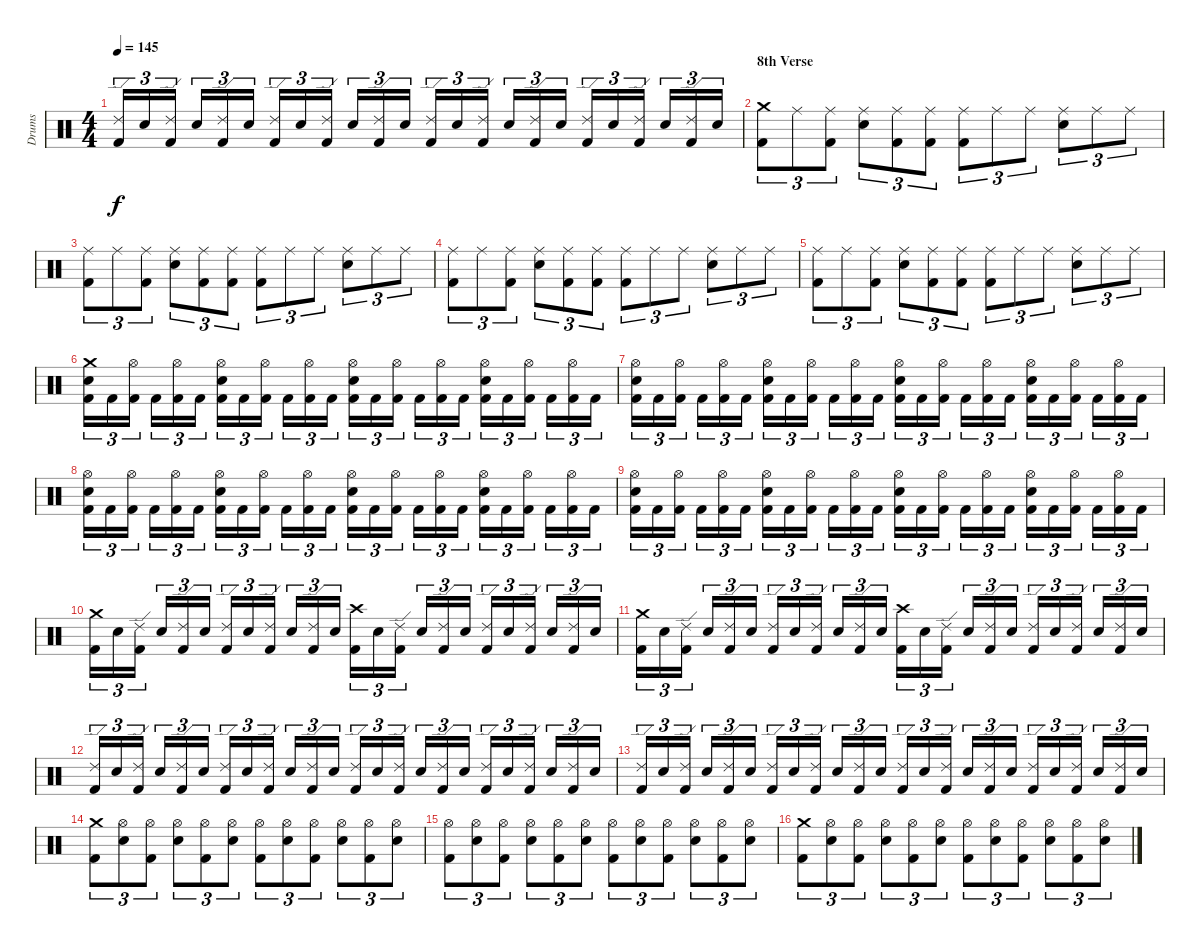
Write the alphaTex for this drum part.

\track ("Drums" "Drums") {instrument percussion}
\staff {score}
\articulation defaults
\ts (4 4)
\tempo 145
\clef neutral
\ks c
("Kick (hit) 2" "Ride (edge) 2").16{tu (3 2) dy f} "Snare (hit) 2".16{tu (3 2)} ("Kick (hit) 2" "Ride (edge) 2").16{tu (3 2)} "Snare (hit) 2".16{tu (3 2)} ("Kick (hit) 2" "Ride (edge) 2").16{tu (3 2)} "Snare (hit) 2".16{tu (3 2)} ("Kick (hit) 2" "Ride (edge) 2").16{tu (3 2)} "Snare (hit) 2".16{tu (3 2)} ("Kick (hit) 2" "Ride (edge) 2").16{tu (3 2)} "Snare (hit) 2".16{tu (3 2)} ("Kick (hit) 2" "Ride (edge) 2").16{tu (3 2)} "Snare (hit) 2".16{tu (3 2)} ("Kick (hit) 2" "Ride (edge) 2").16{tu (3 2)} "Snare (hit) 2".16{tu (3 2)} ("Kick (hit) 2" "Ride (edge) 2").16{tu (3 2)} "Snare (hit) 2".16{tu (3 2)} ("Kick (hit) 2" "Ride (edge) 2").16{tu (3 2)} "Snare (hit) 2".16{tu (3 2)} ("Kick (hit) 2" "Ride (edge) 2").16{tu (3 2)} "Snare (hit) 2".16{tu (3 2)} ("Kick (hit) 2" "Ride (edge) 2").16{tu (3 2)} "Snare (hit) 2".16{tu (3 2)} ("Kick (hit) 2" "Ride (edge) 2").16{tu (3 2)} "Snare (hit) 2".16{tu (3 2)} |
\section ("" "8th Verse")
("Kick (hit) 2" "Crash medium (hit)").8{tu (3 2)} "Ride (middle)".8{tu (3 2)} ("Kick (hit) 2" "Ride (middle)").8{tu (3 2)} ("Electric Snare (hit)" "Ride (middle)").8{tu (3 2)} ("Kick (hit) 2" "Ride (middle)").8{tu (3 2)} ("Kick (hit) 2" "Ride (middle)").8{tu (3 2)} ("Kick (hit) 2" "Ride (middle)").8{tu (3 2)} "Ride (middle)".8{tu (3 2)} "Ride (middle)".8{tu (3 2)} ("Electric Snare (hit)" "Ride (middle)").8{tu (3 2)} "Ride (middle)".8{tu (3 2)} "Ride (middle)".8{tu (3 2)} |
("Kick (hit) 2" "Ride (middle)").8{tu (3 2)} "Ride (middle)".8{tu (3 2)} ("Kick (hit) 2" "Ride (middle)").8{tu (3 2)} ("Electric Snare (hit)" "Ride (middle)").8{tu (3 2)} ("Kick (hit) 2" "Ride (middle)").8{tu (3 2)} ("Kick (hit) 2" "Ride (middle)").8{tu (3 2)} ("Kick (hit) 2" "Ride (middle)").8{tu (3 2)} "Ride (middle)".8{tu (3 2)} "Ride (middle)".8{tu (3 2)} ("Electric Snare (hit)" "Ride (middle)").8{tu (3 2)} "Ride (middle)".8{tu (3 2)} "Ride (middle)".8{tu (3 2)} |
("Kick (hit) 2" "Ride (middle)").8{tu (3 2)} "Ride (middle)".8{tu (3 2)} ("Kick (hit) 2" "Ride (middle)").8{tu (3 2)} ("Electric Snare (hit)" "Ride (middle)").8{tu (3 2)} ("Kick (hit) 2" "Ride (middle)").8{tu (3 2)} ("Kick (hit) 2" "Ride (middle)").8{tu (3 2)} ("Kick (hit) 2" "Ride (middle)").8{tu (3 2)} "Ride (middle)".8{tu (3 2)} "Ride (middle)".8{tu (3 2)} ("Electric Snare (hit)" "Ride (middle)").8{tu (3 2)} "Ride (middle)".8{tu (3 2)} "Ride (middle)".8{tu (3 2)} |
("Kick (hit) 2" "Ride (middle)").8{tu (3 2)} "Ride (middle)".8{tu (3 2)} ("Kick (hit) 2" "Ride (middle)").8{tu (3 2)} ("Electric Snare (hit)" "Ride (middle)").8{tu (3 2)} ("Kick (hit) 2" "Ride (middle)").8{tu (3 2)} ("Kick (hit) 2" "Ride (middle)").8{tu (3 2)} ("Kick (hit) 2" "Ride (middle)").8{tu (3 2)} "Ride (middle)".8{tu (3 2)} "Ride (middle)".8{tu (3 2)} ("Electric Snare (hit)" "Ride (middle)").8{tu (3 2)} "Ride (middle)".8{tu (3 2)} "Ride (middle)".8{tu (3 2)} |
("Kick (hit) 2" "Electric Snare (hit)" "Crash medium (hit)").16{tu (3 2)} "Kick (hit) 2".16{tu (3 2)} ("Kick (hit) 2" "Hi-Hat (open)").16{tu (3 2)} "Kick (hit) 2".16{tu (3 2)} ("Kick (hit) 2" "Hi-Hat (open)").16{tu (3 2)} "Kick (hit) 2".16{tu (3 2)} ("Kick (hit) 2" "Electric Snare (hit)" "Hi-Hat (open)").16{tu (3 2)} "Kick (hit) 2".16{tu (3 2)} ("Kick (hit) 2" "Hi-Hat (open)").16{tu (3 2)} "Kick (hit) 2".16{tu (3 2)} ("Kick (hit) 2" "Hi-Hat (open)").16{tu (3 2)} "Kick (hit) 2".16{tu (3 2)} ("Kick (hit) 2" "Electric Snare (hit)" "Hi-Hat (open)").16{tu (3 2)} "Kick (hit) 2".16{tu (3 2)} ("Kick (hit) 2" "Hi-Hat (open)").16{tu (3 2)} "Kick (hit) 2".16{tu (3 2)} ("Kick (hit) 2" "Hi-Hat (open)").16{tu (3 2)} "Kick (hit) 2".16{tu (3 2)} ("Kick (hit) 2" "Electric Snare (hit)" "Hi-Hat (open)").16{tu (3 2)} "Kick (hit) 2".16{tu (3 2)} ("Kick (hit) 2" "Hi-Hat (open)").16{tu (3 2)} "Kick (hit) 2".16{tu (3 2)} ("Kick (hit) 2" "Hi-Hat (open)").16{tu (3 2)} "Kick (hit) 2".16{tu (3 2)} |
("Kick (hit) 2" "Electric Snare (hit)" "Hi-Hat (open)").16{tu (3 2)} "Kick (hit) 2".16{tu (3 2)} ("Kick (hit) 2" "Hi-Hat (open)").16{tu (3 2)} "Kick (hit) 2".16{tu (3 2)} ("Kick (hit) 2" "Hi-Hat (open)").16{tu (3 2)} "Kick (hit) 2".16{tu (3 2)} ("Kick (hit) 2" "Electric Snare (hit)" "Hi-Hat (open)").16{tu (3 2)} "Kick (hit) 2".16{tu (3 2)} ("Kick (hit) 2" "Hi-Hat (open)").16{tu (3 2)} "Kick (hit) 2".16{tu (3 2)} ("Kick (hit) 2" "Hi-Hat (open)").16{tu (3 2)} "Kick (hit) 2".16{tu (3 2)} ("Kick (hit) 2" "Electric Snare (hit)" "Hi-Hat (open)").16{tu (3 2)} "Kick (hit) 2".16{tu (3 2)} ("Kick (hit) 2" "Hi-Hat (open)").16{tu (3 2)} "Kick (hit) 2".16{tu (3 2)} ("Kick (hit) 2" "Hi-Hat (open)").16{tu (3 2)} "Kick (hit) 2".16{tu (3 2)} ("Kick (hit) 2" "Electric Snare (hit)" "Hi-Hat (open)").16{tu (3 2)} "Kick (hit) 2".16{tu (3 2)} ("Kick (hit) 2" "Hi-Hat (open)").16{tu (3 2)} "Kick (hit) 2".16{tu (3 2)} ("Kick (hit) 2" "Hi-Hat (open)").16{tu (3 2)} "Kick (hit) 2".16{tu (3 2)} |
("Kick (hit) 2" "Electric Snare (hit)" "Hi-Hat (open)").16{tu (3 2)} "Kick (hit) 2".16{tu (3 2)} ("Kick (hit) 2" "Hi-Hat (open)").16{tu (3 2)} "Kick (hit) 2".16{tu (3 2)} ("Kick (hit) 2" "Hi-Hat (open)").16{tu (3 2)} "Kick (hit) 2".16{tu (3 2)} ("Kick (hit) 2" "Electric Snare (hit)" "Hi-Hat (open)").16{tu (3 2)} "Kick (hit) 2".16{tu (3 2)} ("Kick (hit) 2" "Hi-Hat (open)").16{tu (3 2)} "Kick (hit) 2".16{tu (3 2)} ("Kick (hit) 2" "Hi-Hat (open)").16{tu (3 2)} "Kick (hit) 2".16{tu (3 2)} ("Kick (hit) 2" "Electric Snare (hit)" "Hi-Hat (open)").16{tu (3 2)} "Kick (hit) 2".16{tu (3 2)} ("Kick (hit) 2" "Hi-Hat (open)").16{tu (3 2)} "Kick (hit) 2".16{tu (3 2)} ("Kick (hit) 2" "Hi-Hat (open)").16{tu (3 2)} "Kick (hit) 2".16{tu (3 2)} ("Kick (hit) 2" "Electric Snare (hit)" "Hi-Hat (open)").16{tu (3 2)} "Kick (hit) 2".16{tu (3 2)} ("Kick (hit) 2" "Hi-Hat (open)").16{tu (3 2)} "Kick (hit) 2".16{tu (3 2)} ("Kick (hit) 2" "Hi-Hat (open)").16{tu (3 2)} "Kick (hit) 2".16{tu (3 2)} |
("Kick (hit) 2" "Electric Snare (hit)" "Hi-Hat (open)").16{tu (3 2)} "Kick (hit) 2".16{tu (3 2)} ("Kick (hit) 2" "Hi-Hat (open)").16{tu (3 2)} "Kick (hit) 2".16{tu (3 2)} ("Kick (hit) 2" "Hi-Hat (open)").16{tu (3 2)} "Kick (hit) 2".16{tu (3 2)} ("Kick (hit) 2" "Electric Snare (hit)" "Hi-Hat (open)").16{tu (3 2)} "Kick (hit) 2".16{tu (3 2)} ("Kick (hit) 2" "Hi-Hat (open)").16{tu (3 2)} "Kick (hit) 2".16{tu (3 2)} ("Kick (hit) 2" "Hi-Hat (open)").16{tu (3 2)} "Kick (hit) 2".16{tu (3 2)} ("Kick (hit) 2" "Electric Snare (hit)" "Hi-Hat (open)").16{tu (3 2)} "Kick (hit) 2".16{tu (3 2)} ("Kick (hit) 2" "Hi-Hat (open)").16{tu (3 2)} "Kick (hit) 2".16{tu (3 2)} ("Kick (hit) 2" "Hi-Hat (open)").16{tu (3 2)} "Kick (hit) 2".16{tu (3 2)} ("Kick (hit) 2" "Electric Snare (hit)" "Hi-Hat (open)").16{tu (3 2)} "Kick (hit) 2".16{tu (3 2)} ("Kick (hit) 2" "Hi-Hat (open)").16{tu (3 2)} "Kick (hit) 2".16{tu (3 2)} ("Kick (hit) 2" "Hi-Hat (open)").16{tu (3 2)} "Kick (hit) 2".16{tu (3 2)} |
("Kick (hit) 2" "Crash medium (hit)").16{tu (3 2)} "Snare (hit) 2".16{tu (3 2)} ("Kick (hit) 2" "Ride (edge) 2").16{tu (3 2)} "Snare (hit) 2".16{tu (3 2)} ("Kick (hit) 2" "Ride (edge) 2").16{tu (3 2)} "Snare (hit) 2".16{tu (3 2)} ("Kick (hit) 2" "Ride (edge) 2").16{tu (3 2)} "Snare (hit) 2".16{tu (3 2)} ("Kick (hit) 2" "Ride (edge) 2").16{tu (3 2)} "Snare (hit) 2".16{tu (3 2)} ("Kick (hit) 2" "Ride (edge) 2").16{tu (3 2)} "Snare (hit) 2".16{tu (3 2)} ("Kick (hit) 2" "Crash high (hit)").16{tu (3 2)} "Snare (hit) 2".16{tu (3 2)} ("Kick (hit) 2" "Ride (edge) 2").16{tu (3 2)} "Snare (hit) 2".16{tu (3 2)} ("Kick (hit) 2" "Ride (edge) 2").16{tu (3 2)} "Snare (hit) 2".16{tu (3 2)} ("Kick (hit) 2" "Ride (edge) 2").16{tu (3 2)} "Snare (hit) 2".16{tu (3 2)} ("Kick (hit) 2" "Ride (edge) 2").16{tu (3 2)} "Snare (hit) 2".16{tu (3 2)} ("Kick (hit) 2" "Ride (edge) 2").16{tu (3 2)} "Snare (hit) 2".16{tu (3 2)} |
("Kick (hit) 2" "Crash medium (hit)").16{tu (3 2)} "Snare (hit) 2".16{tu (3 2)} ("Kick (hit) 2" "Ride (edge) 2").16{tu (3 2)} "Snare (hit) 2".16{tu (3 2)} ("Kick (hit) 2" "Ride (edge) 2").16{tu (3 2)} "Snare (hit) 2".16{tu (3 2)} ("Kick (hit) 2" "Ride (edge) 2").16{tu (3 2)} "Snare (hit) 2".16{tu (3 2)} ("Kick (hit) 2" "Ride (edge) 2").16{tu (3 2)} "Snare (hit) 2".16{tu (3 2)} ("Kick (hit) 2" "Ride (edge) 2").16{tu (3 2)} "Snare (hit) 2".16{tu (3 2)} ("Kick (hit) 2" "Crash high (hit)").16{tu (3 2)} "Snare (hit) 2".16{tu (3 2)} ("Kick (hit) 2" "Ride (edge) 2").16{tu (3 2)} "Snare (hit) 2".16{tu (3 2)} ("Kick (hit) 2" "Ride (edge) 2").16{tu (3 2)} "Snare (hit) 2".16{tu (3 2)} ("Kick (hit) 2" "Ride (edge) 2").16{tu (3 2)} "Snare (hit) 2".16{tu (3 2)} ("Kick (hit) 2" "Ride (edge) 2").16{tu (3 2)} "Snare (hit) 2".16{tu (3 2)} ("Kick (hit) 2" "Ride (edge) 2").16{tu (3 2)} "Snare (hit) 2".16{tu (3 2)} |
("Kick (hit) 2" "Ride (edge) 2").16{tu (3 2)} "Snare (hit) 2".16{tu (3 2)} ("Kick (hit) 2" "Ride (edge) 2").16{tu (3 2)} "Snare (hit) 2".16{tu (3 2)} ("Kick (hit) 2" "Ride (edge) 2").16{tu (3 2)} "Snare (hit) 2".16{tu (3 2)} ("Kick (hit) 2" "Ride (edge) 2").16{tu (3 2)} "Snare (hit) 2".16{tu (3 2)} ("Kick (hit) 2" "Ride (edge) 2").16{tu (3 2)} "Snare (hit) 2".16{tu (3 2)} ("Kick (hit) 2" "Ride (edge) 2").16{tu (3 2)} "Snare (hit) 2".16{tu (3 2)} ("Kick (hit) 2" "Ride (edge) 2").16{tu (3 2)} "Snare (hit) 2".16{tu (3 2)} ("Kick (hit) 2" "Ride (edge) 2").16{tu (3 2)} "Snare (hit) 2".16{tu (3 2)} ("Kick (hit) 2" "Ride (edge) 2").16{tu (3 2)} "Snare (hit) 2".16{tu (3 2)} ("Kick (hit) 2" "Ride (edge) 2").16{tu (3 2)} "Snare (hit) 2".16{tu (3 2)} ("Kick (hit) 2" "Ride (edge) 2").16{tu (3 2)} "Snare (hit) 2".16{tu (3 2)} ("Kick (hit) 2" "Ride (edge) 2").16{tu (3 2)} "Snare (hit) 2".16{tu (3 2)} |
("Kick (hit) 2" "Ride (edge) 2").16{tu (3 2)} "Snare (hit) 2".16{tu (3 2)} ("Kick (hit) 2" "Ride (edge) 2").16{tu (3 2)} "Snare (hit) 2".16{tu (3 2)} ("Kick (hit) 2" "Ride (edge) 2").16{tu (3 2)} "Snare (hit) 2".16{tu (3 2)} ("Kick (hit) 2" "Ride (edge) 2").16{tu (3 2)} "Snare (hit) 2".16{tu (3 2)} ("Kick (hit) 2" "Ride (edge) 2").16{tu (3 2)} "Snare (hit) 2".16{tu (3 2)} ("Kick (hit) 2" "Ride (edge) 2").16{tu (3 2)} "Snare (hit) 2".16{tu (3 2)} ("Kick (hit) 2" "Ride (edge) 2").16{tu (3 2)} "Snare (hit) 2".16{tu (3 2)} ("Kick (hit) 2" "Ride (edge) 2").16{tu (3 2)} "Snare (hit) 2".16{tu (3 2)} ("Kick (hit) 2" "Ride (edge) 2").16{tu (3 2)} "Snare (hit) 2".16{tu (3 2)} ("Kick (hit) 2" "Ride (edge) 2").16{tu (3 2)} "Snare (hit) 2".16{tu (3 2)} ("Kick (hit) 2" "Ride (edge) 2").16{tu (3 2)} "Snare (hit) 2".16{tu (3 2)} ("Kick (hit) 2" "Ride (edge) 2").16{tu (3 2)} "Snare (hit) 2".16{tu (3 2)} |
("Kick (hit) 2" "Crash medium (hit)").8{tu (3 2)} ("Snare (hit) 2" "Hi-Hat (open)").8{tu (3 2)} ("Kick (hit) 2" "Hi-Hat (open)").8{tu (3 2)} ("Snare (hit) 2" "Hi-Hat (open)").8{tu (3 2)} ("Kick (hit) 2" "Hi-Hat (open)").8{tu (3 2)} ("Snare (hit) 2" "Hi-Hat (open)").8{tu (3 2)} ("Kick (hit) 2" "Hi-Hat (open)").8{tu (3 2)} ("Snare (hit) 2" "Hi-Hat (open)").8{tu (3 2)} ("Kick (hit) 2" "Hi-Hat (open)").8{tu (3 2)} ("Snare (hit) 2" "Hi-Hat (open)").8{tu (3 2)} ("Kick (hit) 2" "Hi-Hat (open)").8{tu (3 2)} ("Snare (hit) 2" "Hi-Hat (open)").8{tu (3 2)} |
("Kick (hit) 2" "Hi-Hat (open)").8{tu (3 2)} ("Snare (hit) 2" "Hi-Hat (open)").8{tu (3 2)} ("Kick (hit) 2" "Hi-Hat (open)").8{tu (3 2)} ("Snare (hit) 2" "Hi-Hat (open)").8{tu (3 2)} ("Kick (hit) 2" "Hi-Hat (open)").8{tu (3 2)} ("Snare (hit) 2" "Hi-Hat (open)").8{tu (3 2)} ("Kick (hit) 2" "Hi-Hat (open)").8{tu (3 2)} ("Snare (hit) 2" "Hi-Hat (open)").8{tu (3 2)} ("Kick (hit) 2" "Hi-Hat (open)").8{tu (3 2)} ("Snare (hit) 2" "Hi-Hat (open)").8{tu (3 2)} ("Kick (hit) 2" "Hi-Hat (open)").8{tu (3 2)} ("Snare (hit) 2" "Hi-Hat (open)").8{tu (3 2)} |
("Kick (hit) 2" "Crash medium (hit)").8{tu (3 2)} ("Snare (hit) 2" "Hi-Hat (open)").8{tu (3 2)} ("Kick (hit) 2" "Hi-Hat (open)").8{tu (3 2)} ("Snare (hit) 2" "Hi-Hat (open)").8{tu (3 2)} ("Kick (hit) 2" "Hi-Hat (open)").8{tu (3 2)} ("Snare (hit) 2" "Hi-Hat (open)").8{tu (3 2)} ("Kick (hit) 2" "Hi-Hat (open)").8{tu (3 2)} ("Snare (hit) 2" "Hi-Hat (open)").8{tu (3 2)} ("Kick (hit) 2" "Hi-Hat (open)").8{tu (3 2)} ("Snare (hit) 2" "Hi-Hat (open)").8{tu (3 2)} ("Kick (hit) 2" "Hi-Hat (open)").8{tu (3 2)} ("Snare (hit) 2" "Hi-Hat (open)").8{tu (3 2)}
